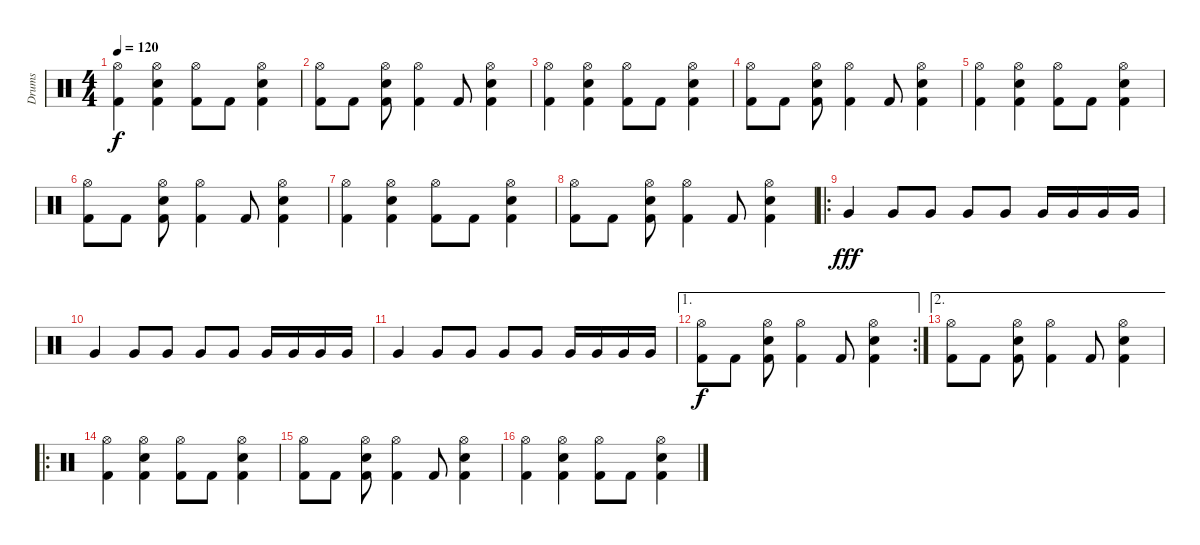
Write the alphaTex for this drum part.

\track ("Drums" "Drums") {instrument percussion}
\staff {score}
\articulation defaults
\ts (4 4)
\tempo 120
\clef neutral
\ks c
("Hi-Hat (open)" "Kick (hit) 2").4{dy f} ("Hi-Hat (open)" "Electric Snare (hit)" "Kick (hit) 2").4 ("Hi-Hat (open)" "Kick (hit) 2").8 "Kick (hit) 2".8 ("Hi-Hat (open)" "Electric Snare (hit)" "Kick (hit) 2").4 |
("Hi-Hat (open)" "Kick (hit) 2").8 "Kick (hit) 2".8 ("Hi-Hat (open)" "Electric Snare (hit)" "Kick (hit) 2").8 ("Hi-Hat (open)" "Kick (hit) 2").4 "Kick (hit) 2".8 ("Hi-Hat (open)" "Electric Snare (hit)" "Kick (hit) 2").4 |
("Hi-Hat (open)" "Kick (hit) 2").4 ("Hi-Hat (open)" "Electric Snare (hit)" "Kick (hit) 2").4 ("Hi-Hat (open)" "Kick (hit) 2").8 "Kick (hit) 2".8 ("Hi-Hat (open)" "Electric Snare (hit)" "Kick (hit) 2").4 |
("Hi-Hat (open)" "Kick (hit) 2").8 "Kick (hit) 2".8 ("Hi-Hat (open)" "Electric Snare (hit)" "Kick (hit) 2").8 ("Hi-Hat (open)" "Kick (hit) 2").4 "Kick (hit) 2".8 ("Hi-Hat (open)" "Electric Snare (hit)" "Kick (hit) 2").4 |
("Hi-Hat (open)" "Kick (hit) 2").4 ("Hi-Hat (open)" "Electric Snare (hit)" "Kick (hit) 2").4 ("Hi-Hat (open)" "Kick (hit) 2").8 "Kick (hit) 2".8 ("Hi-Hat (open)" "Electric Snare (hit)" "Kick (hit) 2").4 |
("Hi-Hat (open)" "Kick (hit) 2").8 "Kick (hit) 2".8 ("Hi-Hat (open)" "Electric Snare (hit)" "Kick (hit) 2").8 ("Hi-Hat (open)" "Kick (hit) 2").4 "Kick (hit) 2".8 ("Hi-Hat (open)" "Electric Snare (hit)" "Kick (hit) 2").4 |
("Hi-Hat (open)" "Kick (hit) 2").4 ("Hi-Hat (open)" "Electric Snare (hit)" "Kick (hit) 2").4 ("Hi-Hat (open)" "Kick (hit) 2").8 "Kick (hit) 2".8 ("Hi-Hat (open)" "Electric Snare (hit)" "Kick (hit) 2").4 |
("Hi-Hat (open)" "Kick (hit) 2").8 "Kick (hit) 2".8 ("Hi-Hat (open)" "Electric Snare (hit)" "Kick (hit) 2").8 ("Hi-Hat (open)" "Kick (hit) 2").4 "Kick (hit) 2".8 ("Hi-Hat (open)" "Electric Snare (hit)" "Kick (hit) 2").4 |
\ro "Very Low Tom (hit)".4{dy fff} "Very Low Tom (hit)".8 "Very Low Tom (hit)".8 "Very Low Tom (hit)".8 "Very Low Tom (hit)".8 "Very Low Tom (hit)".16 "Very Low Tom (hit)".16 "Very Low Tom (hit)".16 "Very Low Tom (hit)".16
|
"Very Low Tom (hit)".4 "Very Low Tom (hit)".8 "Very Low Tom (hit)".8 "Very Low Tom (hit)".8 "Very Low Tom (hit)".8 "Very Low Tom (hit)".16 "Very Low Tom (hit)".16 "Very Low Tom (hit)".16 "Very Low Tom (hit)".16 |
"Very Low Tom (hit)".4 "Very Low Tom (hit)".8 "Very Low Tom (hit)".8 "Very Low Tom (hit)".8 "Very Low Tom (hit)".8 "Very Low Tom (hit)".16 "Very Low Tom (hit)".16 "Very Low Tom (hit)".16 "Very Low Tom (hit)".16 |
\ae 1
\rc 2
("Hi-Hat (open)" "Kick (hit) 2").8{dy f} "Kick (hit) 2".8 ("Hi-Hat (open)" "Electric Snare (hit)" "Kick (hit) 2").8 ("Hi-Hat (open)" "Kick (hit) 2").4 "Kick (hit) 2".8 ("Hi-Hat (open)" "Electric Snare (hit)" "Kick (hit) 2").4 |
\ae 2
("Hi-Hat (open)" "Kick (hit) 2").8 "Kick (hit) 2".8 ("Hi-Hat (open)" "Electric Snare (hit)" "Kick (hit) 2").8 ("Hi-Hat (open)" "Kick (hit) 2").4 "Kick (hit) 2".8 ("Hi-Hat (open)" "Electric Snare (hit)" "Kick (hit) 2").4 |
\ro
("Hi-Hat (open)" "Kick (hit) 2").4 ("Hi-Hat (open)" "Electric Snare (hit)" "Kick (hit) 2").4 ("Hi-Hat (open)" "Kick (hit) 2").8 "Kick (hit) 2".8 ("Hi-Hat (open)" "Electric Snare (hit)" "Kick (hit) 2").4 |
("Hi-Hat (open)" "Kick (hit) 2").8 "Kick (hit) 2".8 ("Hi-Hat (open)" "Electric Snare (hit)" "Kick (hit) 2").8 ("Hi-Hat (open)" "Kick (hit) 2").4 "Kick (hit) 2".8 ("Hi-Hat (open)" "Electric Snare (hit)" "Kick (hit) 2").4 |
("Hi-Hat (open)" "Kick (hit) 2").4 ("Hi-Hat (open)" "Electric Snare (hit)" "Kick (hit) 2").4 ("Hi-Hat (open)" "Kick (hit) 2").8 "Kick (hit) 2".8 ("Hi-Hat (open)" "Electric Snare (hit)" "Kick (hit) 2").4
